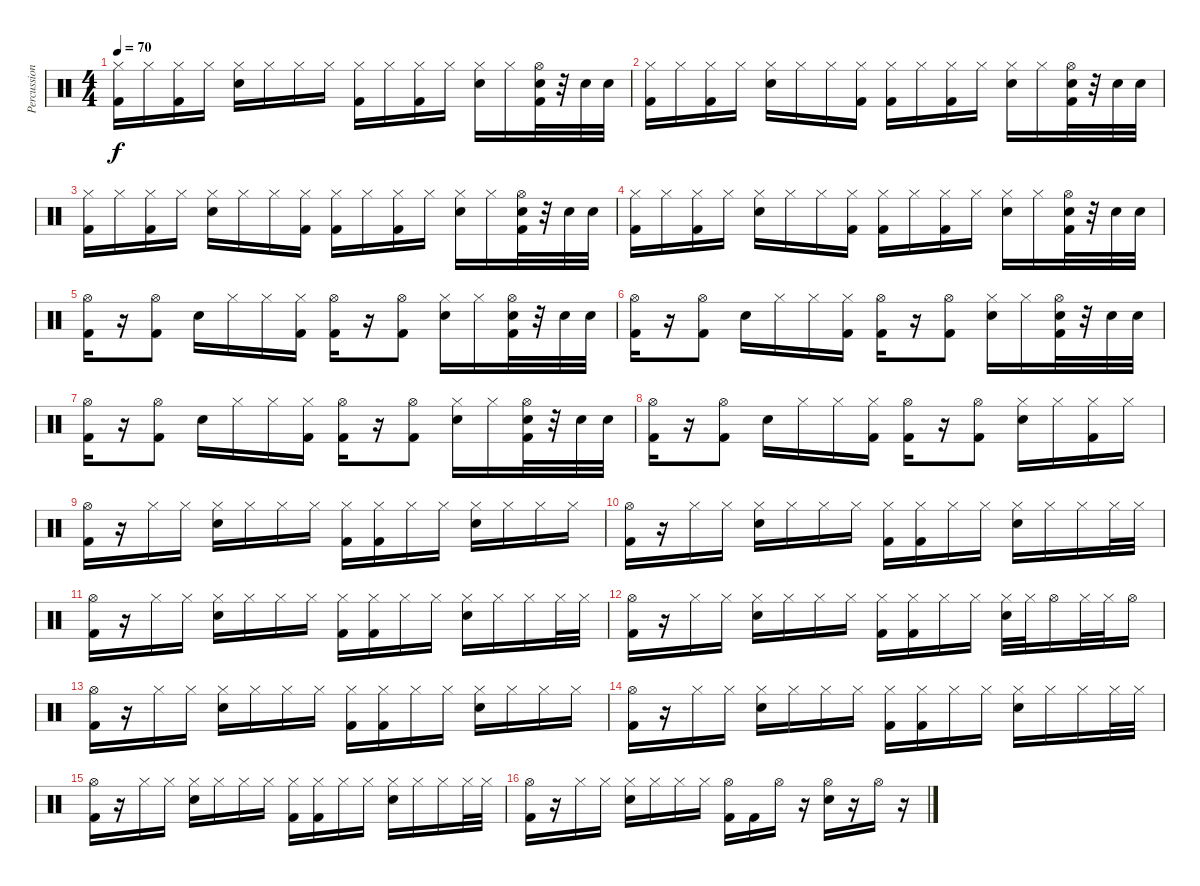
\track ("Percussion" "Percussion") {instrument percussion}
\staff {score}
\articulation defaults
\ts (4 4)
\tempo 70
\clef neutral
\ks c
("Hi-Hat (closed)" "Kick (hit) 2").16{dy f} "Hi-Hat (closed)".16 ("Hi-Hat (closed)" "Kick (hit) 2").16 "Hi-Hat (closed)".16 ("Hi-Hat (closed)" "Snare (hit) 2").16 "Hi-Hat (closed)".16 "Hi-Hat (closed)".16 "Hi-Hat (closed)".16 ("Hi-Hat (closed)" "Kick (hit) 2").16 "Hi-Hat (closed)".16 ("Hi-Hat (closed)" "Kick (hit) 2").16 "Hi-Hat (closed)".16 ("Hi-Hat (closed)" "Snare (hit) 2").16 "Hi-Hat (closed)".16 ("Hi-Hat (open)" "Snare (hit) 2" "Kick (hit) 2").32 r.32 "Snare (hit) 2".32 "Snare (hit) 2".32 |
("Hi-Hat (closed)" "Kick (hit) 2").16 "Hi-Hat (closed)".16 ("Hi-Hat (closed)" "Kick (hit) 2").16 "Hi-Hat (closed)".16 ("Hi-Hat (closed)" "Snare (hit) 2").16 "Hi-Hat (closed)".16 "Hi-Hat (closed)".16 ("Hi-Hat (closed)" "Kick (hit) 2").16 ("Hi-Hat (closed)" "Kick (hit) 2").16 "Hi-Hat (closed)".16 ("Hi-Hat (closed)" "Kick (hit) 2").16 "Hi-Hat (closed)".16 ("Hi-Hat (closed)" "Snare (hit) 2").16 "Hi-Hat (closed)".16 ("Hi-Hat (open)" "Snare (hit) 2" "Kick (hit) 2").32 r.32 "Snare (hit) 2".32 "Snare (hit) 2".32 |
("Hi-Hat (closed)" "Kick (hit) 2").16 "Hi-Hat (closed)".16 ("Hi-Hat (closed)" "Kick (hit) 2").16 "Hi-Hat (closed)".16 ("Hi-Hat (closed)" "Snare (hit) 2").16 "Hi-Hat (closed)".16 "Hi-Hat (closed)".16 ("Hi-Hat (closed)" "Kick (hit) 2").16 ("Hi-Hat (closed)" "Kick (hit) 2").16 "Hi-Hat (closed)".16 ("Hi-Hat (closed)" "Kick (hit) 2").16 "Hi-Hat (closed)".16 ("Hi-Hat (closed)" "Snare (hit) 2").16 "Hi-Hat (closed)".16 ("Hi-Hat (open)" "Snare (hit) 2" "Kick (hit) 2").32 r.32 "Snare (hit) 2".32 "Snare (hit) 2".32 |
("Hi-Hat (closed)" "Kick (hit) 2").16 "Hi-Hat (closed)".16 ("Hi-Hat (closed)" "Kick (hit) 2").16 "Hi-Hat (closed)".16 ("Hi-Hat (closed)" "Snare (hit) 2").16 "Hi-Hat (closed)".16 "Hi-Hat (closed)".16 ("Hi-Hat (closed)" "Kick (hit) 2").16 ("Hi-Hat (closed)" "Kick (hit) 2").16 "Hi-Hat (closed)".16 ("Hi-Hat (closed)" "Kick (hit) 2").16 "Hi-Hat (closed)".16 ("Hi-Hat (closed)" "Snare (hit) 2").16 "Hi-Hat (closed)".16 ("Hi-Hat (open)" "Snare (hit) 2" "Kick (hit) 2").32 r.32 "Snare (hit) 2".32 "Snare (hit) 2".32 |
("Hi-Hat (open)" "Kick (hit) 2").16 r.16 ("Hi-Hat (open)" "Kick (hit) 2").8 "Snare (hit) 2".16 "Hi-Hat (closed)".16 "Hi-Hat (closed)".16 ("Hi-Hat (closed)" "Kick (hit) 2").16 ("Hi-Hat (open)" "Kick (hit) 2").16 r.16 ("Hi-Hat (open)" "Kick (hit) 2").8 ("Hi-Hat (closed)" "Snare (hit) 2").16 "Hi-Hat (closed)".16 ("Hi-Hat (open)" "Snare (hit) 2" "Kick (hit) 2").32 r.32 "Snare (hit) 2".32 "Snare (hit) 2".32 |
("Hi-Hat (open)" "Kick (hit) 2").16 r.16 ("Hi-Hat (open)" "Kick (hit) 2").8 "Snare (hit) 2".16 "Hi-Hat (closed)".16 "Hi-Hat (closed)".16 ("Hi-Hat (closed)" "Kick (hit) 2").16 ("Hi-Hat (open)" "Kick (hit) 2").16 r.16 ("Hi-Hat (open)" "Kick (hit) 2").8 ("Hi-Hat (closed)" "Snare (hit) 2").16 "Hi-Hat (closed)".16 ("Hi-Hat (open)" "Snare (hit) 2" "Kick (hit) 2").32 r.32 "Snare (hit) 2".32 "Snare (hit) 2".32 |
("Hi-Hat (open)" "Kick (hit) 2").16 r.16 ("Hi-Hat (open)" "Kick (hit) 2").8 "Snare (hit) 2".16 "Hi-Hat (closed)".16 "Hi-Hat (closed)".16 ("Hi-Hat (closed)" "Kick (hit) 2").16 ("Hi-Hat (open)" "Kick (hit) 2").16 r.16 ("Hi-Hat (open)" "Kick (hit) 2").8 ("Hi-Hat (closed)" "Snare (hit) 2").16 "Hi-Hat (closed)".16 ("Hi-Hat (open)" "Snare (hit) 2" "Kick (hit) 2").32 r.32 "Snare (hit) 2".32 "Snare (hit) 2".32 |
("Hi-Hat (open)" "Kick (hit) 2").16 r.16 ("Hi-Hat (open)" "Kick (hit) 2").8 "Snare (hit) 2".16 "Hi-Hat (closed)".16 "Hi-Hat (closed)".16 ("Hi-Hat (closed)" "Kick (hit) 2").16 ("Hi-Hat (open)" "Kick (hit) 2").16 r.16 ("Hi-Hat (open)" "Kick (hit) 2").8 ("Hi-Hat (closed)" "Snare (hit) 2").16 "Hi-Hat (closed)".16 ("Hi-Hat (closed)" "Kick (hit) 2").16 "Hi-Hat (closed)".16 |
("Hi-Hat (open)" "Kick (hit) 2").16 r.16 "Hi-Hat (closed)".16 "Hi-Hat (closed)".16 ("Hi-Hat (closed)" "Snare (hit) 2").16 "Hi-Hat (closed)".16 "Hi-Hat (closed)".16 "Hi-Hat (closed)".16 ("Hi-Hat (closed)" "Kick (hit) 2").16 ("Hi-Hat (closed)" "Kick (hit) 2").16 "Hi-Hat (closed)".16 "Hi-Hat (closed)".16 ("Hi-Hat (closed)" "Snare (hit) 2").16 "Hi-Hat (closed)".16 "Hi-Hat (closed)".16 "Hi-Hat (closed)".16 |
("Hi-Hat (open)" "Kick (hit) 2").16 r.16 "Hi-Hat (closed)".16 "Hi-Hat (closed)".16 ("Hi-Hat (closed)" "Snare (hit) 2").16 "Hi-Hat (closed)".16 "Hi-Hat (closed)".16 "Hi-Hat (closed)".16 ("Hi-Hat (closed)" "Kick (hit) 2").16 ("Hi-Hat (closed)" "Kick (hit) 2").16 "Hi-Hat (closed)".16 "Hi-Hat (closed)".16 ("Hi-Hat (closed)" "Snare (hit) 2").16 "Hi-Hat (closed)".16 "Hi-Hat (closed)".16 "Hi-Hat (closed)".32 "Hi-Hat (closed)".32 |
("Hi-Hat (open)" "Kick (hit) 2").16 r.16 "Hi-Hat (closed)".16 "Hi-Hat (closed)".16 ("Hi-Hat (closed)" "Snare (hit) 2").16 "Hi-Hat (closed)".16 "Hi-Hat (closed)".16 "Hi-Hat (closed)".16 ("Hi-Hat (closed)" "Kick (hit) 2").16 ("Hi-Hat (closed)" "Kick (hit) 2").16 "Hi-Hat (closed)".16 "Hi-Hat (closed)".16 ("Hi-Hat (closed)" "Snare (hit) 2").16 "Hi-Hat (closed)".16 "Hi-Hat (closed)".16 "Hi-Hat (closed)".32 "Hi-Hat (closed)".32 |
("Hi-Hat (open)" "Kick (hit) 2").16 r.16 "Hi-Hat (closed)".16 "Hi-Hat (closed)".16 ("Hi-Hat (closed)" "Snare (hit) 2").16 "Hi-Hat (closed)".16 "Hi-Hat (closed)".16 "Hi-Hat (closed)".16 ("Hi-Hat (closed)" "Kick (hit) 2").16 ("Hi-Hat (closed)" "Kick (hit) 2").16 "Hi-Hat (closed)".16 "Hi-Hat (closed)".16 ("Hi-Hat (closed)" "Snare (hit) 2").32 "Hi-Hat (closed)".32 "Hi-Hat (open)".16 "Hi-Hat (closed)".32 "Hi-Hat (closed)".32 "Hi-Hat (open)".16 |
("Hi-Hat (open)" "Kick (hit) 2").16 r.16 "Hi-Hat (closed)".16 "Hi-Hat (closed)".16 ("Hi-Hat (closed)" "Snare (hit) 2").16 "Hi-Hat (closed)".16 "Hi-Hat (closed)".16 "Hi-Hat (closed)".16 ("Hi-Hat (closed)" "Kick (hit) 2").16 ("Hi-Hat (closed)" "Kick (hit) 2").16 "Hi-Hat (closed)".16 "Hi-Hat (closed)".16 ("Hi-Hat (closed)" "Snare (hit) 2").16 "Hi-Hat (closed)".16 "Hi-Hat (closed)".16 "Hi-Hat (closed)".16 |
("Hi-Hat (open)" "Kick (hit) 2").16 r.16 "Hi-Hat (closed)".16 "Hi-Hat (closed)".16 ("Hi-Hat (closed)" "Snare (hit) 2").16 "Hi-Hat (closed)".16 "Hi-Hat (closed)".16 "Hi-Hat (closed)".16 ("Hi-Hat (closed)" "Kick (hit) 2").16 ("Hi-Hat (closed)" "Kick (hit) 2").16 "Hi-Hat (closed)".16 "Hi-Hat (closed)".16 ("Hi-Hat (closed)" "Snare (hit) 2").16 "Hi-Hat (closed)".16 "Hi-Hat (closed)".16 "Hi-Hat (closed)".32 "Hi-Hat (closed)".32 |
("Hi-Hat (open)" "Kick (hit) 2").16 r.16 "Hi-Hat (closed)".16 "Hi-Hat (closed)".16 ("Hi-Hat (closed)" "Snare (hit) 2").16 "Hi-Hat (closed)".16 "Hi-Hat (closed)".16 "Hi-Hat (closed)".16 ("Hi-Hat (closed)" "Kick (hit) 2").16 ("Hi-Hat (closed)" "Kick (hit) 2").16 "Hi-Hat (closed)".16 "Hi-Hat (closed)".16 ("Hi-Hat (closed)" "Snare (hit) 2").16 "Hi-Hat (closed)".16 "Hi-Hat (closed)".16 "Hi-Hat (closed)".32 "Hi-Hat (closed)".32 |
("Hi-Hat (open)" "Kick (hit) 2").16 r.16 "Hi-Hat (closed)".16 "Hi-Hat (closed)".16 ("Hi-Hat (closed)" "Snare (hit) 2").16 "Hi-Hat (closed)".16 "Hi-Hat (closed)".16 "Hi-Hat (closed)".16 ("Hi-Hat (open)" "Kick (hit) 2").16 "Kick (hit) 2".16 "Hi-Hat (open)".16 r.16 ("Hi-Hat (open)" "Snare (hit) 2").16 r.16 "Hi-Hat (open)".16 r.16
